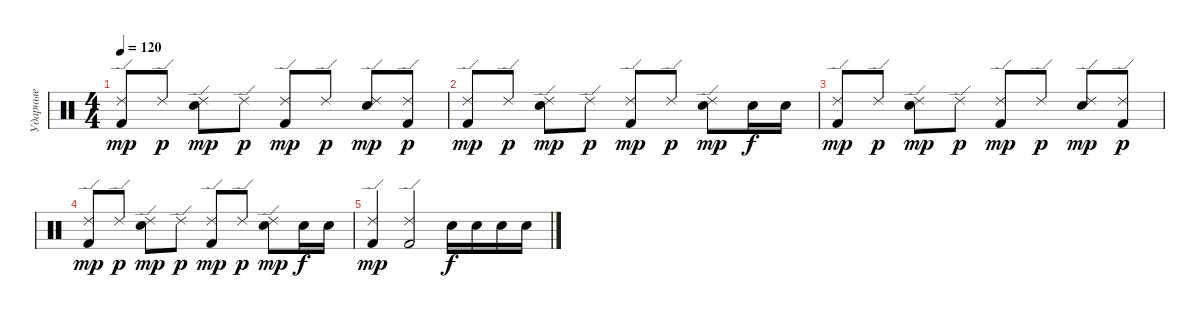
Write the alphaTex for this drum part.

\track ("Ударные" "Ударные") {instrument percussion}
\staff {score}
\articulation defaults
\ts (4 4)
\tempo 120
\clef neutral
\ks c
("Ride (edge) 2" "Kick (hit) 2").8{dy mp} "Ride (edge) 2".8{dy p} ("Ride (edge) 2" "Electric Snare (hit)").8{dy mp} "Ride (edge) 2".8{dy p} ("Ride (edge) 2" "Kick (hit) 2").8{dy mp} "Ride (edge) 2".8{dy p} ("Ride (edge) 2" "Electric Snare (hit)").8{dy mp} ("Ride (edge) 2" "Kick (hit) 2").8{dy p} |
("Ride (edge) 2" "Kick (hit) 2").8{dy mp} "Ride (edge) 2".8{dy p} ("Ride (edge) 2" "Electric Snare (hit)").8{dy mp} "Ride (edge) 2".8{dy p} ("Ride (edge) 2" "Kick (hit) 2").8{dy mp} "Ride (edge) 2".8{dy p} ("Ride (edge) 2" "Electric Snare (hit)").8{dy mp} "Electric Snare (hit)".16{dy f} "Electric Snare (hit)".16 |
("Ride (edge) 2" "Kick (hit) 2").8{dy mp} "Ride (edge) 2".8{dy p} ("Ride (edge) 2" "Electric Snare (hit)").8{dy mp} "Ride (edge) 2".8{dy p} ("Ride (edge) 2" "Kick (hit) 2").8{dy mp} "Ride (edge) 2".8{dy p} ("Ride (edge) 2" "Electric Snare (hit)").8{dy mp} ("Ride (edge) 2" "Kick (hit) 2").8{dy p} |
("Ride (edge) 2" "Kick (hit) 2").8{dy mp} "Ride (edge) 2".8{dy p} ("Ride (edge) 2" "Electric Snare (hit)").8{dy mp} "Ride (edge) 2".8{dy p} ("Ride (edge) 2" "Kick (hit) 2").8{dy mp} "Ride (edge) 2".8{dy p} ("Ride (edge) 2" "Electric Snare (hit)").8{dy mp} "Electric Snare (hit)".16{dy f} "Electric Snare (hit)".16 |
("Ride (edge) 2" "Kick (hit) 2").4{dy mp} ("Ride (edge) 2" "Kick (hit) 2").2 "Electric Snare (hit)".16{dy f} "Electric Snare (hit)".16 "Electric Snare (hit)".16 "Electric Snare (hit)".16
